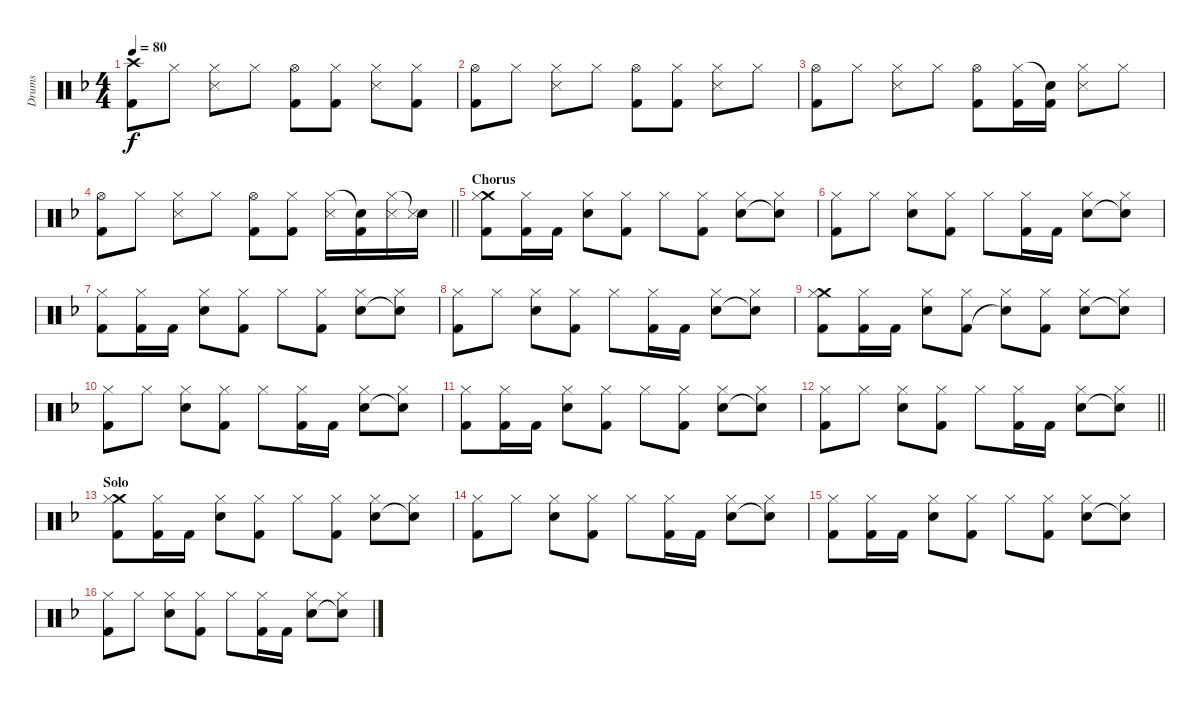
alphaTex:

\track ("Drums" "Drums") {instrument percussion}
\staff {score}
\articulation defaults
\ts (4 4)
\tempo 80
\clef neutral
\ks f
("Crash high (hit)" "Kick (hit) 2").8{dy f} "Hi-Hat (closed)".8 ("Hi-Hat (closed)" "Snare (side stick) 3").8 "Hi-Hat (closed)".8 ("Hi-Hat (open)" "Kick (hit) 2").8 ("Hi-Hat (closed)" "Kick (hit) 2").8 ("Hi-Hat (closed)" "Snare (side stick) 3").8 ("Hi-Hat (closed)" "Kick (hit) 2").8 |
("Hi-Hat (open)" "Kick (hit) 2").8 "Hi-Hat (closed)".8 ("Hi-Hat (closed)" "Snare (side stick) 3").8 "Hi-Hat (closed)".8 ("Hi-Hat (open)" "Kick (hit) 2").8 ("Hi-Hat (closed)" "Kick (hit) 2").8 ("Hi-Hat (closed)" "Snare (side stick) 3").8 "Hi-Hat (closed)".8 |
("Hi-Hat (open)" "Kick (hit) 2").8 "Hi-Hat (closed)".8 ("Hi-Hat (closed)" "Snare (side stick) 3").8 "Hi-Hat (closed)".8 ("Hi-Hat (open)" "Kick (hit) 2").8 ("Hi-Hat (closed)" "Kick (hit) 2").16 ("Snare (hit)"{t} "Kick (hit) 2").16 ("Hi-Hat (closed)" "Snare (side stick) 3").8 "Hi-Hat (closed)".8 |
\barLineRight lightlight
("Hi-Hat (open)" "Kick (hit) 2").8 "Hi-Hat (closed)".8 ("Hi-Hat (closed)" "Snare (side stick) 3").8 "Hi-Hat (closed)".8 ("Hi-Hat (open)" "Kick (hit) 2").8 ("Hi-Hat (closed)" "Kick (hit) 2").8 ("Hi-Hat (closed)" "Snare (side stick) 3").16 ("Snare (hit)"{t} "Kick (hit) 2").16 ("Hi-Hat (closed)" "Snare (side stick) 3").16 ("Snare (hit)"{t} "Snare (side stick) 3").16 |
\section ("" "Chorus")
("Crash medium (hit)" "Hi-Hat (closed)" "Kick (hit) 2").8 ("Hi-Hat (closed)" "Kick (hit) 2").16 "Kick (hit) 2".16 ("Hi-Hat (closed)" "Snare (hit) 2").8 ("Hi-Hat (closed)" "Kick (hit) 2").8 "Hi-Hat (closed)".8 ("Hi-Hat (closed)" "Kick (hit) 2").8 ("Hi-Hat (closed)" "Snare (hit) 2").8 ("Hi-Hat (closed)" "Snare (hit) 2"{t}).8 |
("Hi-Hat (closed)" "Kick (hit) 2").8 "Hi-Hat (closed)".8 ("Hi-Hat (closed)" "Snare (hit) 2").8 ("Hi-Hat (closed)" "Kick (hit) 2").8 "Hi-Hat (closed)".8 ("Hi-Hat (closed)" "Kick (hit) 2").16 "Kick (hit) 2".16 ("Hi-Hat (closed)" "Snare (hit) 2").8 ("Hi-Hat (closed)" "Snare (hit)"{t}).8 |
("Hi-Hat (closed)" "Kick (hit) 2").8 ("Hi-Hat (closed)" "Kick (hit) 2").16 "Kick (hit) 2".16 ("Hi-Hat (closed)" "Snare (hit) 2").8 ("Hi-Hat (closed)" "Kick (hit) 2").8 "Hi-Hat (closed)".8 ("Hi-Hat (closed)" "Kick (hit) 2").8 ("Hi-Hat (closed)" "Snare (hit) 2").8 ("Hi-Hat (closed)" "Snare (hit) 2"{t}).8 |
("Hi-Hat (closed)" "Kick (hit) 2").8 "Hi-Hat (closed)".8 ("Hi-Hat (closed)" "Snare (hit) 2").8 ("Hi-Hat (closed)" "Kick (hit) 2").8 "Hi-Hat (closed)".8 ("Hi-Hat (closed)" "Kick (hit) 2").16 "Kick (hit) 2".16 ("Hi-Hat (closed)" "Snare (hit) 2").8 ("Hi-Hat (closed)" "Snare (hit)"{t}).8 |
("Crash medium (hit)" "Hi-Hat (closed)" "Kick (hit) 2").8 ("Hi-Hat (closed)" "Kick (hit) 2").16 "Kick (hit) 2".16 ("Hi-Hat (closed)" "Snare (hit) 2").8 ("Hi-Hat (closed)" "Kick (hit) 2").8 ("Hi-Hat (closed)" "Snare (hit) 2"{t}).8 ("Hi-Hat (closed)" "Kick (hit) 2").8 ("Hi-Hat (closed)" "Snare (hit) 2").8 ("Hi-Hat (closed)" "Snare (hit) 2"{t}).8 |
("Hi-Hat (closed)" "Kick (hit) 2").8 "Hi-Hat (closed)".8 ("Hi-Hat (closed)" "Snare (hit) 2").8 ("Hi-Hat (closed)" "Kick (hit) 2").8 "Hi-Hat (closed)".8 ("Hi-Hat (closed)" "Kick (hit) 2").16 "Kick (hit) 2".16 ("Hi-Hat (closed)" "Snare (hit) 2").8 ("Hi-Hat (closed)" "Snare (hit)"{t}).8 |
("Hi-Hat (closed)" "Kick (hit) 2").8 ("Hi-Hat (closed)" "Kick (hit) 2").16 "Kick (hit) 2".16 ("Hi-Hat (closed)" "Snare (hit) 2").8 ("Hi-Hat (closed)" "Kick (hit) 2").8 "Hi-Hat (closed)".8 ("Hi-Hat (closed)" "Kick (hit) 2").8 ("Hi-Hat (closed)" "Snare (hit) 2").8 ("Hi-Hat (closed)" "Snare (hit) 2"{t}).8 |
\barLineRight lightlight
("Hi-Hat (closed)" "Kick (hit) 2").8 "Hi-Hat (closed)".8 ("Hi-Hat (closed)" "Snare (hit) 2").8 ("Hi-Hat (closed)" "Kick (hit) 2").8 "Hi-Hat (closed)".8 ("Hi-Hat (closed)" "Kick (hit) 2").16 "Kick (hit) 2".16 ("Hi-Hat (closed)" "Snare (hit) 2").8 ("Hi-Hat (closed)" "Snare (hit)"{t}).8 |
\section ("" "Solo")
("Crash medium (hit)" "Hi-Hat (closed)" "Kick (hit) 2").8 ("Hi-Hat (closed)" "Kick (hit) 2").16 "Kick (hit) 2".16 ("Hi-Hat (closed)" "Snare (hit) 2").8 ("Hi-Hat (closed)" "Kick (hit) 2").8 "Hi-Hat (closed)".8 ("Hi-Hat (closed)" "Kick (hit) 2").8 ("Hi-Hat (closed)" "Snare (hit) 2").8 ("Hi-Hat (closed)" "Snare (hit) 2"{t}).8 |
("Hi-Hat (closed)" "Kick (hit) 2").8 "Hi-Hat (closed)".8 ("Hi-Hat (closed)" "Snare (hit) 2").8 ("Hi-Hat (closed)" "Kick (hit) 2").8 "Hi-Hat (closed)".8 ("Hi-Hat (closed)" "Kick (hit) 2").16 "Kick (hit) 2".16 ("Hi-Hat (closed)" "Snare (hit) 2").8 ("Hi-Hat (closed)" "Snare (hit)"{t}).8 |
("Hi-Hat (closed)" "Kick (hit) 2").8 ("Hi-Hat (closed)" "Kick (hit) 2").16 "Kick (hit) 2".16 ("Hi-Hat (closed)" "Snare (hit) 2").8 ("Hi-Hat (closed)" "Kick (hit) 2").8 "Hi-Hat (closed)".8 ("Hi-Hat (closed)" "Kick (hit) 2").8 ("Hi-Hat (closed)" "Snare (hit) 2").8 ("Hi-Hat (closed)" "Snare (hit) 2"{t}).8 |
("Hi-Hat (closed)" "Kick (hit) 2").8 "Hi-Hat (closed)".8 ("Hi-Hat (closed)" "Snare (hit) 2").8 ("Hi-Hat (closed)" "Kick (hit) 2").8 "Hi-Hat (closed)".8 ("Hi-Hat (closed)" "Kick (hit) 2").16 "Kick (hit) 2".16 ("Hi-Hat (closed)" "Snare (hit) 2").8 ("Hi-Hat (closed)" "Snare (hit)"{t}).8
